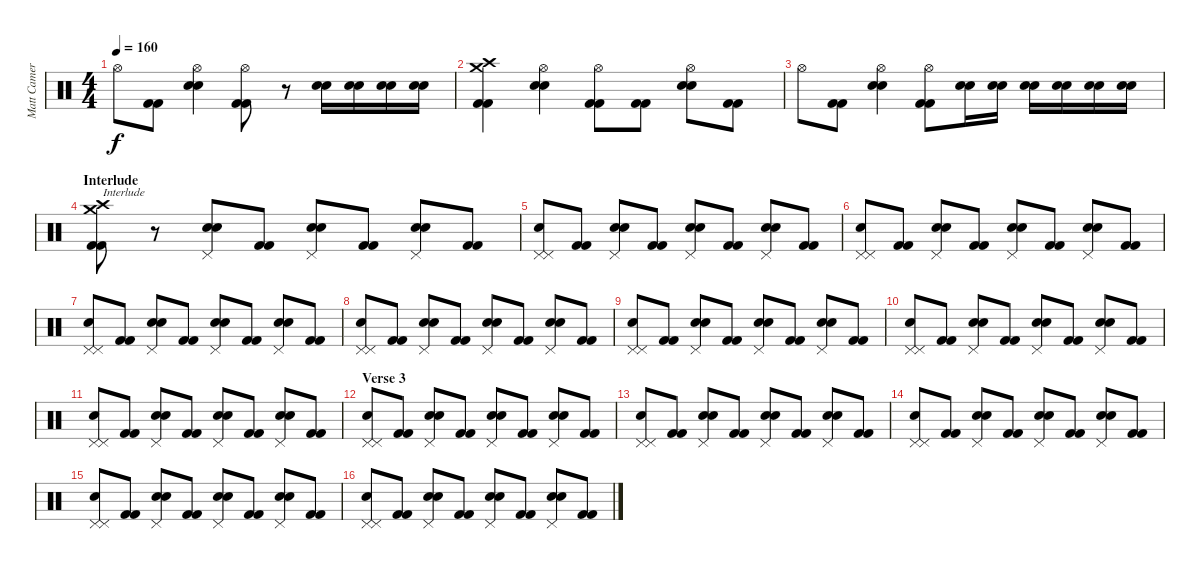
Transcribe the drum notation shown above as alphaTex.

\track ("Matt Cameron" "Matt Camer") {instrument percussion}
\staff {score}
\articulation defaults
\ts (4 4)
\tempo 160
\clef neutral
\ks c "Hi-Hat (open)".8{dy f}
("Kick (hit) 2" "Kick (hit) 2").8 ("Electric Snare (hit)" "Electric Snare (hit)" "Hi-Hat (open)").4 ("Kick (hit) 2" "Kick (hit) 2" "Hi-Hat (open)").8 r.8 ("Electric Snare (hit)" "Electric Snare (hit)").16 ("Electric Snare (hit)" "Electric Snare (hit)").16 ("Electric Snare (hit)" "Electric Snare (hit)").16 ("Electric Snare (hit)" "Electric Snare (hit)").16 |
("Crash medium (hit)" "Kick (hit) 2" "Kick (hit) 2" "Crash high (hit)").4 ("Electric Snare (hit)" "Electric Snare (hit)" "Hi-Hat (open)").4 ("Kick (hit) 2" "Kick (hit) 2" "Hi-Hat (open)").8 ("Kick (hit) 2" "Kick (hit) 2").8 ("Electric Snare (hit)" "Electric Snare (hit)" "Hi-Hat (open)").8 ("Kick (hit) 2" "Kick (hit) 2").8 |
"Hi-Hat (open)".8 ("Kick (hit) 2" "Kick (hit) 2").8 ("Electric Snare (hit)" "Electric Snare (hit)" "Hi-Hat (open)").4 ("Kick (hit) 2" "Kick (hit) 2" "Hi-Hat (open)").8 ("Electric Snare (hit)" "Electric Snare (hit)").16 ("Electric Snare (hit)" "Electric Snare (hit)").16 ("Electric Snare (hit)" "Electric Snare (hit)").16 ("Electric Snare (hit)" "Electric Snare (hit)").16 ("Electric Snare (hit)" "Electric Snare (hit)").16 ("Electric Snare (hit)" "Electric Snare (hit)").16 |
\section ("" "Interlude")
("Crash medium (hit)" "Kick (hit) 2" "Kick (hit) 2" "Crash high (hit)").8{txt "Interlude"} r.8 ("Electric Snare (hit)" "Electric Snare (hit)" "Pedal Hi-Hat (hit)").8 ("Kick (hit) 2" "Kick (hit) 2").8 ("Electric Snare (hit)" "Electric Snare (hit)" "Pedal Hi-Hat (hit)").8 ("Kick (hit) 2" "Kick (hit) 2").8 ("Electric Snare (hit)" "Electric Snare (hit)" "Pedal Hi-Hat (hit)").8 ("Kick (hit) 2" "Kick (hit) 2").8 |
("Electric Snare (hit)" "Pedal Hi-Hat (hit)" "Pedal Hi-Hat (hit)").8 ("Kick (hit) 2" "Kick (hit) 2").8 ("Electric Snare (hit)" "Electric Snare (hit)" "Pedal Hi-Hat (hit)").8 ("Kick (hit) 2" "Kick (hit) 2").8 ("Electric Snare (hit)" "Electric Snare (hit)" "Pedal Hi-Hat (hit)").8 ("Kick (hit) 2" "Kick (hit) 2").8 ("Electric Snare (hit)" "Electric Snare (hit)" "Pedal Hi-Hat (hit)").8 ("Kick (hit) 2" "Kick (hit) 2").8 |
("Electric Snare (hit)" "Pedal Hi-Hat (hit)" "Pedal Hi-Hat (hit)").8 ("Kick (hit) 2" "Kick (hit) 2").8 ("Electric Snare (hit)" "Electric Snare (hit)" "Pedal Hi-Hat (hit)").8 ("Kick (hit) 2" "Kick (hit) 2").8 ("Electric Snare (hit)" "Electric Snare (hit)" "Pedal Hi-Hat (hit)").8 ("Kick (hit) 2" "Kick (hit) 2").8 ("Electric Snare (hit)" "Electric Snare (hit)" "Pedal Hi-Hat (hit)").8 ("Kick (hit) 2" "Kick (hit) 2").8 |
("Electric Snare (hit)" "Pedal Hi-Hat (hit)" "Pedal Hi-Hat (hit)").8 ("Kick (hit) 2" "Kick (hit) 2").8 ("Electric Snare (hit)" "Electric Snare (hit)" "Pedal Hi-Hat (hit)").8 ("Kick (hit) 2" "Kick (hit) 2").8 ("Electric Snare (hit)" "Electric Snare (hit)" "Pedal Hi-Hat (hit)").8 ("Kick (hit) 2" "Kick (hit) 2").8 ("Electric Snare (hit)" "Electric Snare (hit)" "Pedal Hi-Hat (hit)").8 ("Kick (hit) 2" "Kick (hit) 2").8 |
("Electric Snare (hit)" "Pedal Hi-Hat (hit)" "Pedal Hi-Hat (hit)").8 ("Kick (hit) 2" "Kick (hit) 2").8 ("Electric Snare (hit)" "Electric Snare (hit)" "Pedal Hi-Hat (hit)").8 ("Kick (hit) 2" "Kick (hit) 2").8 ("Electric Snare (hit)" "Electric Snare (hit)" "Pedal Hi-Hat (hit)").8 ("Kick (hit) 2" "Kick (hit) 2").8 ("Electric Snare (hit)" "Electric Snare (hit)" "Pedal Hi-Hat (hit)").8 ("Kick (hit) 2" "Kick (hit) 2").8 |
("Electric Snare (hit)" "Pedal Hi-Hat (hit)" "Pedal Hi-Hat (hit)").8 ("Kick (hit) 2" "Kick (hit) 2").8 ("Electric Snare (hit)" "Electric Snare (hit)" "Pedal Hi-Hat (hit)").8 ("Kick (hit) 2" "Kick (hit) 2").8 ("Electric Snare (hit)" "Electric Snare (hit)" "Pedal Hi-Hat (hit)").8 ("Kick (hit) 2" "Kick (hit) 2").8 ("Electric Snare (hit)" "Electric Snare (hit)" "Pedal Hi-Hat (hit)").8 ("Kick (hit) 2" "Kick (hit) 2").8 |
("Electric Snare (hit)" "Pedal Hi-Hat (hit)" "Pedal Hi-Hat (hit)").8 ("Kick (hit) 2" "Kick (hit) 2").8 ("Electric Snare (hit)" "Electric Snare (hit)" "Pedal Hi-Hat (hit)").8 ("Kick (hit) 2" "Kick (hit) 2").8 ("Electric Snare (hit)" "Electric Snare (hit)" "Pedal Hi-Hat (hit)").8 ("Kick (hit) 2" "Kick (hit) 2").8 ("Electric Snare (hit)" "Electric Snare (hit)" "Pedal Hi-Hat (hit)").8 ("Kick (hit) 2" "Kick (hit) 2").8 |
("Electric Snare (hit)" "Pedal Hi-Hat (hit)" "Pedal Hi-Hat (hit)").8 ("Kick (hit) 2" "Kick (hit) 2").8 ("Electric Snare (hit)" "Electric Snare (hit)" "Pedal Hi-Hat (hit)").8 ("Kick (hit) 2" "Kick (hit) 2").8 ("Electric Snare (hit)" "Electric Snare (hit)" "Pedal Hi-Hat (hit)").8 ("Kick (hit) 2" "Kick (hit) 2").8 ("Electric Snare (hit)" "Electric Snare (hit)" "Pedal Hi-Hat (hit)").8 ("Kick (hit) 2" "Kick (hit) 2").8 |
\section ("" "Verse 3")
("Electric Snare (hit)" "Pedal Hi-Hat (hit)" "Pedal Hi-Hat (hit)").8 ("Kick (hit) 2" "Kick (hit) 2").8 ("Electric Snare (hit)" "Electric Snare (hit)" "Pedal Hi-Hat (hit)").8 ("Kick (hit) 2" "Kick (hit) 2").8 ("Electric Snare (hit)" "Electric Snare (hit)" "Pedal Hi-Hat (hit)").8 ("Kick (hit) 2" "Kick (hit) 2").8 ("Electric Snare (hit)" "Electric Snare (hit)" "Pedal Hi-Hat (hit)").8 ("Kick (hit) 2" "Kick (hit) 2").8 |
("Electric Snare (hit)" "Pedal Hi-Hat (hit)" "Pedal Hi-Hat (hit)").8 ("Kick (hit) 2" "Kick (hit) 2").8 ("Electric Snare (hit)" "Electric Snare (hit)" "Pedal Hi-Hat (hit)").8 ("Kick (hit) 2" "Kick (hit) 2").8 ("Electric Snare (hit)" "Electric Snare (hit)" "Pedal Hi-Hat (hit)").8 ("Kick (hit) 2" "Kick (hit) 2").8 ("Electric Snare (hit)" "Electric Snare (hit)" "Pedal Hi-Hat (hit)").8 ("Kick (hit) 2" "Kick (hit) 2").8 |
("Electric Snare (hit)" "Pedal Hi-Hat (hit)" "Pedal Hi-Hat (hit)").8 ("Kick (hit) 2" "Kick (hit) 2").8 ("Electric Snare (hit)" "Electric Snare (hit)" "Pedal Hi-Hat (hit)").8 ("Kick (hit) 2" "Kick (hit) 2").8 ("Electric Snare (hit)" "Electric Snare (hit)" "Pedal Hi-Hat (hit)").8 ("Kick (hit) 2" "Kick (hit) 2").8 ("Electric Snare (hit)" "Electric Snare (hit)" "Pedal Hi-Hat (hit)").8 ("Kick (hit) 2" "Kick (hit) 2").8 |
("Electric Snare (hit)" "Pedal Hi-Hat (hit)" "Pedal Hi-Hat (hit)").8 ("Kick (hit) 2" "Kick (hit) 2").8 ("Electric Snare (hit)" "Electric Snare (hit)" "Pedal Hi-Hat (hit)").8 ("Kick (hit) 2" "Kick (hit) 2").8 ("Electric Snare (hit)" "Electric Snare (hit)" "Pedal Hi-Hat (hit)").8 ("Kick (hit) 2" "Kick (hit) 2").8 ("Electric Snare (hit)" "Electric Snare (hit)" "Pedal Hi-Hat (hit)").8 ("Kick (hit) 2" "Kick (hit) 2").8 |
("Electric Snare (hit)" "Pedal Hi-Hat (hit)" "Pedal Hi-Hat (hit)").8 ("Kick (hit) 2" "Kick (hit) 2").8 ("Electric Snare (hit)" "Electric Snare (hit)" "Pedal Hi-Hat (hit)").8 ("Kick (hit) 2" "Kick (hit) 2").8 ("Electric Snare (hit)" "Electric Snare (hit)" "Pedal Hi-Hat (hit)").8 ("Kick (hit) 2" "Kick (hit) 2").8 ("Electric Snare (hit)" "Electric Snare (hit)" "Pedal Hi-Hat (hit)").8 ("Kick (hit) 2" "Kick (hit) 2").8
